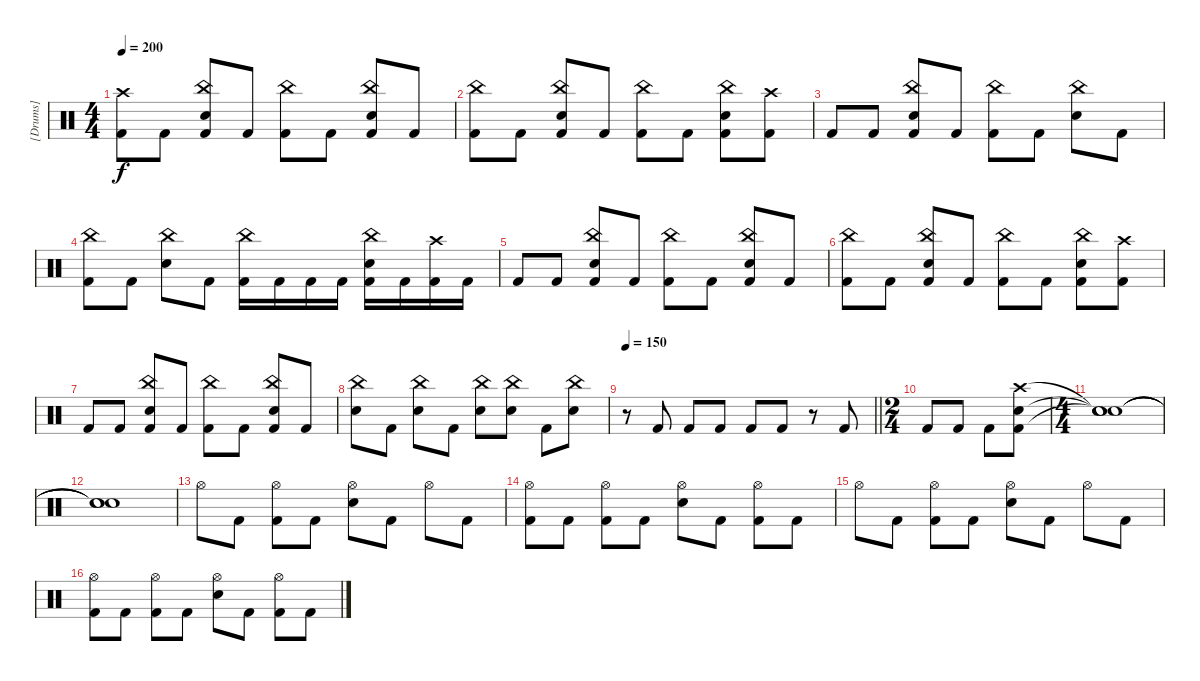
\track ("[Drums]" "[Drums]") {instrument percussion}
\staff {score}
\articulation defaults
\ts (4 4)
\tempo 200
\clef neutral
\ks c
("Crash high (hit)" "Kick (hit) 2").8{dy f} "Kick (hit) 2".8 ("China (hit)" "Electric Snare (hit)" "Kick (hit) 2").8 "Kick (hit) 2".8 ("China (hit)" "Kick (hit) 2").8 "Kick (hit) 2".8 ("China (hit)" "Electric Snare (hit)" "Kick (hit) 2").8 "Kick (hit) 2".8 |
("China (hit)" "Kick (hit) 2").8 "Kick (hit) 2".8 ("China (hit)" "Electric Snare (hit)" "Kick (hit) 2").8 "Kick (hit) 2".8 ("China (hit)" "Kick (hit) 2").8 "Kick (hit) 2".8 ("China (hit)" "Electric Snare (hit)" "Kick (hit) 2").8 ("Crash high (hit)" "Kick (hit) 2").8 |
"Kick (hit) 2".8 "Kick (hit) 2".8 ("China (hit)" "Electric Snare (hit)" "Kick (hit) 2").8 "Kick (hit) 2".8 ("China (hit)" "Kick (hit) 2").8 "Kick (hit) 2".8 ("China (hit)" "Electric Snare (hit)").8 "Kick (hit) 2".8 |
("China (hit)" "Kick (hit) 2").8 "Kick (hit) 2".8 ("China (hit)" "Electric Snare (hit)").8 "Kick (hit) 2".8 ("China (hit)" "Kick (hit) 2").16 "Kick (hit) 2".16 "Kick (hit) 2".16 "Kick (hit) 2".16 ("China (hit)" "Electric Snare (hit)" "Kick (hit) 2").16 "Kick (hit) 2".16 ("Crash high (hit)" "Kick (hit) 2").16 "Kick (hit) 2".16 |
"Kick (hit) 2".8 "Kick (hit) 2".8 ("China (hit)" "Electric Snare (hit)" "Kick (hit) 2").8 "Kick (hit) 2".8 ("China (hit)" "Kick (hit) 2").8 "Kick (hit) 2".8 ("China (hit)" "Electric Snare (hit)" "Kick (hit) 2").8 "Kick (hit) 2".8 |
("China (hit)" "Kick (hit) 2").8 "Kick (hit) 2".8 ("China (hit)" "Electric Snare (hit)" "Kick (hit) 2").8 "Kick (hit) 2".8 ("China (hit)" "Kick (hit) 2").8 "Kick (hit) 2".8 ("China (hit)" "Electric Snare (hit)" "Kick (hit) 2").8 ("Crash high (hit)" "Kick (hit) 2").8 |
"Kick (hit) 2".8 "Kick (hit) 2".8 ("China (hit)" "Electric Snare (hit)" "Kick (hit) 2").8 "Kick (hit) 2".8 ("China (hit)" "Kick (hit) 2").8 "Kick (hit) 2".8 ("China (hit)" "Electric Snare (hit)" "Kick (hit) 2").8 "Kick (hit) 2".8 |
("China (hit)" "Electric Snare (hit)").8 "Kick (hit) 2".8 ("China (hit)" "Electric Snare (hit)").8 "Kick (hit) 2".8 ("China (hit)" "Electric Snare (hit)").8 ("China (hit)" "Electric Snare (hit)").8 "Kick (hit) 2".8 ("China (hit)" "Electric Snare (hit)").8 |
\tempo 150
\barLineRight lightlight
r.8 "Kick (hit) 2".8 "Kick (hit) 2".8 "Kick (hit) 2".8 "Kick (hit) 2".8 "Kick (hit) 2".8 r.8 "Kick (hit) 2".8 |
\ts (2 4)
"Kick (hit) 2".8 "Kick (hit) 2".8 "Kick (hit) 2".8 ("Crash high (hit)" "Electric Snare (hit)" "Kick (hit) 2").8 |
\ts (4 4)
("Snare (hit)"{t} "Snare (hit)"{t} "Snare (hit)"{t}).1 |
("Snare (hit)"{t} "Snare (hit)"{t} "Snare (hit)"{t}).1 |
"Hi-Hat (open)".8 "Kick (hit) 2".8 ("Hi-Hat (open)" "Kick (hit) 2").8 "Kick (hit) 2".8 ("Hi-Hat (open)" "Electric Snare (hit)").8 "Kick (hit) 2".8 "Hi-Hat (open)".8 "Kick (hit) 2".8 |
("Hi-Hat (open)" "Kick (hit) 2").8 "Kick (hit) 2".8 ("Hi-Hat (open)" "Kick (hit) 2").8 "Kick (hit) 2".8 ("Hi-Hat (open)" "Electric Snare (hit)").8 "Kick (hit) 2".8 ("Hi-Hat (open)" "Kick (hit) 2").8 "Kick (hit) 2".8 |
"Hi-Hat (open)".8 "Kick (hit) 2".8 ("Hi-Hat (open)" "Kick (hit) 2").8 "Kick (hit) 2".8 ("Hi-Hat (open)" "Electric Snare (hit)").8 "Kick (hit) 2".8 "Hi-Hat (open)".8 "Kick (hit) 2".8 |
("Hi-Hat (open)" "Kick (hit) 2").8 "Kick (hit) 2".8 ("Hi-Hat (open)" "Kick (hit) 2").8 "Kick (hit) 2".8 ("Hi-Hat (open)" "Electric Snare (hit)").8 "Kick (hit) 2".8 ("Hi-Hat (open)" "Kick (hit) 2").8 "Kick (hit) 2".8
